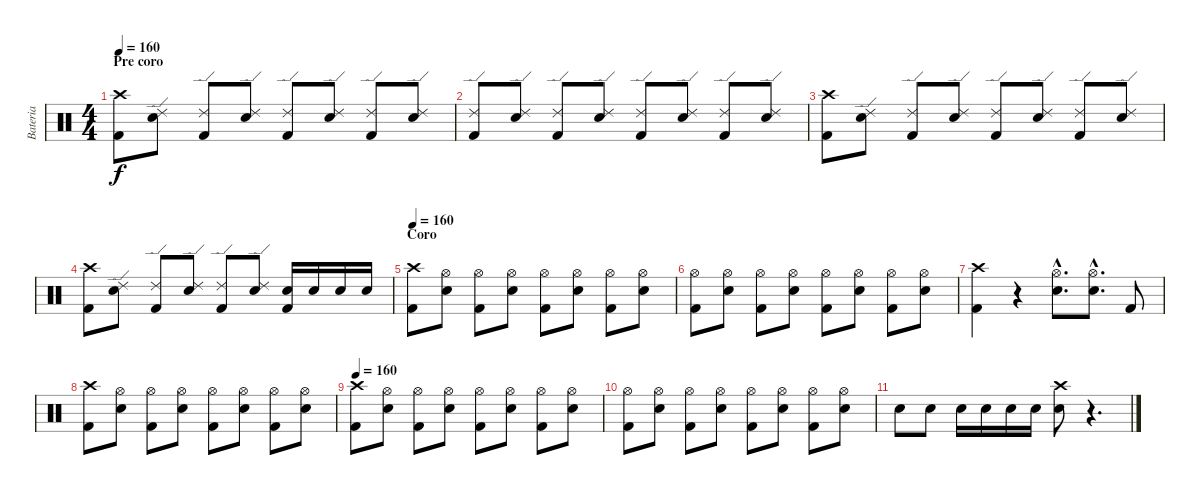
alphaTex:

\track ("Bateria" "Bateria") {instrument percussion}
\staff {score}
\articulation defaults
\ts (4 4)
\section ("" "Pre coro")
\tempo 160
\clef neutral
\ks c
("Crash high (hit)" "Kick (hit) 2").8{dy f} ("Ride (edge) 2" "Snare (hit) 2").8 ("Ride (edge) 2" "Kick (hit) 2").8 ("Ride (edge) 2" "Snare (hit) 2").8 ("Ride (edge) 2" "Kick (hit) 2").8 ("Ride (edge) 2" "Snare (hit) 2").8 ("Ride (edge) 2" "Kick (hit) 2").8 ("Ride (edge) 2" "Snare (hit) 2").8 |
("Ride (edge) 2" "Kick (hit) 2").8 ("Ride (edge) 2" "Snare (hit) 2").8 ("Ride (edge) 2" "Kick (hit) 2").8 ("Ride (edge) 2" "Snare (hit) 2").8 ("Ride (edge) 2" "Kick (hit) 2").8 ("Ride (edge) 2" "Snare (hit) 2").8 ("Ride (edge) 2" "Kick (hit) 2").8 ("Ride (edge) 2" "Snare (hit) 2").8 |
("Crash high (hit)" "Kick (hit) 2").8 ("Ride (edge) 2" "Snare (hit) 2").8 ("Ride (edge) 2" "Kick (hit) 2").8 ("Ride (edge) 2" "Snare (hit) 2").8 ("Ride (edge) 2" "Kick (hit) 2").8 ("Ride (edge) 2" "Snare (hit) 2").8 ("Ride (edge) 2" "Kick (hit) 2").8 ("Ride (edge) 2" "Snare (hit) 2").8 |
("Crash high (hit)" "Kick (hit) 2").8 ("Ride (edge) 2" "Snare (hit) 2").8 ("Ride (edge) 2" "Kick (hit) 2").8 ("Ride (edge) 2" "Snare (hit) 2").8 ("Ride (edge) 2" "Kick (hit) 2").8 ("Ride (edge) 2" "Snare (hit) 2").8 ("Snare (hit) 2" "Kick (hit) 2").16 "Snare (hit) 2".16 "Snare (hit) 2".16 "Snare (hit) 2".16 |
\section ("" "Coro")
\tempo 160
("Crash high (hit)" "Kick (hit) 2").8 ("Hi-Hat (open)" "Snare (hit) 2").8 ("Hi-Hat (open)" "Kick (hit) 2").8 ("Hi-Hat (open)" "Snare (hit) 2").8 ("Hi-Hat (open)" "Kick (hit) 2").8 ("Hi-Hat (open)" "Snare (hit) 2").8 ("Hi-Hat (open)" "Kick (hit) 2").8 ("Hi-Hat (open)" "Snare (hit) 2").8 |
("Hi-Hat (open)" "Kick (hit) 2").8 ("Hi-Hat (open)" "Snare (hit) 2").8 ("Hi-Hat (open)" "Kick (hit) 2").8 ("Hi-Hat (open)" "Snare (hit) 2").8 ("Hi-Hat (open)" "Kick (hit) 2").8 ("Hi-Hat (open)" "Snare (hit) 2").8 ("Hi-Hat (open)" "Kick (hit) 2").8 ("Hi-Hat (open)" "Snare (hit) 2").8 |
("Crash high (hit)" "Kick (hit) 2").4 r.4 ("Hi-Hat (open)"{hac} "Snare (hit) 2"{hac}).8{d} ("Hi-Hat (open)"{hac} "Snare (hit) 2"{hac}).8{d} "Kick (hit) 2".8 |
("Crash high (hit)" "Kick (hit) 2").8 ("Hi-Hat (open)" "Snare (hit) 2").8 ("Hi-Hat (open)" "Kick (hit) 2").8 ("Hi-Hat (open)" "Snare (hit) 2").8 ("Hi-Hat (open)" "Kick (hit) 2").8 ("Hi-Hat (open)" "Snare (hit) 2").8 ("Hi-Hat (open)" "Kick (hit) 2").8 ("Hi-Hat (open)" "Snare (hit) 2").8 |
\tempo 160
("Crash high (hit)" "Kick (hit) 2").8 ("Hi-Hat (open)" "Snare (hit) 2").8 ("Hi-Hat (open)" "Kick (hit) 2").8 ("Hi-Hat (open)" "Snare (hit) 2").8 ("Hi-Hat (open)" "Kick (hit) 2").8 ("Hi-Hat (open)" "Snare (hit) 2").8 ("Hi-Hat (open)" "Kick (hit) 2").8 ("Hi-Hat (open)" "Snare (hit) 2").8 |
("Hi-Hat (open)" "Kick (hit) 2").8 ("Hi-Hat (open)" "Snare (hit) 2").8 ("Hi-Hat (open)" "Kick (hit) 2").8 ("Hi-Hat (open)" "Snare (hit) 2").8 ("Hi-Hat (open)" "Kick (hit) 2").8 ("Hi-Hat (open)" "Snare (hit) 2").8 ("Hi-Hat (open)" "Kick (hit) 2").8 ("Hi-Hat (open)" "Snare (hit) 2").8 |
"Snare (hit) 2".8 "Snare (hit) 2".8 "Snare (hit) 2".16 "Snare (hit) 2".16 "Snare (hit) 2".16 "Snare (hit) 2".16 ("Snare (hit) 2" "Crash high (hit)").8 r.4{d}
